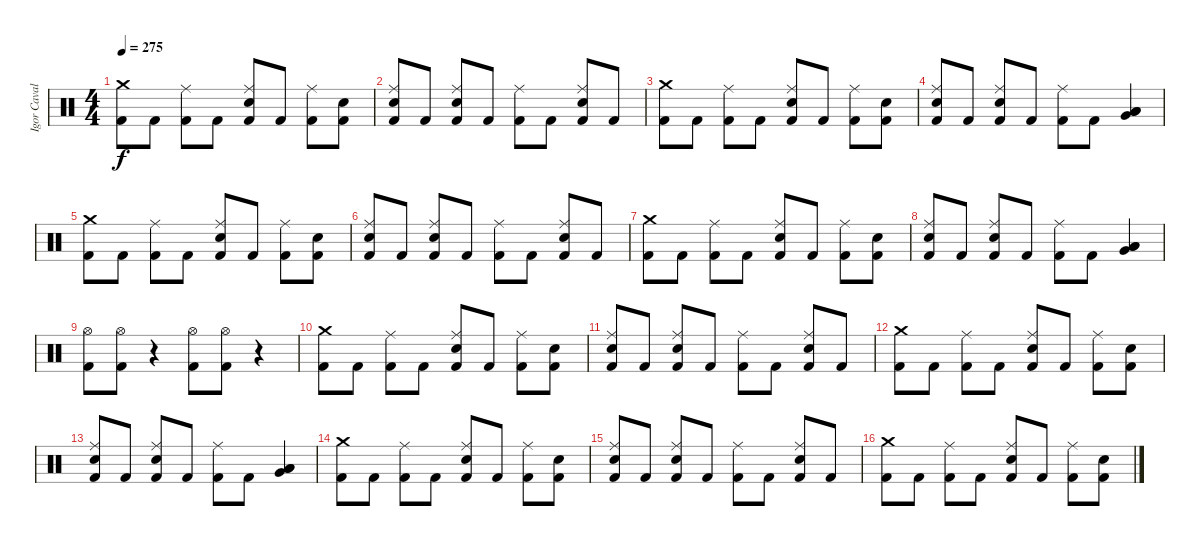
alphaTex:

\track ("Igor Cavalera" "Igor Caval") {instrument percussion}
\staff {score}
\articulation defaults
\ts (4 4)
\tempo 275
\clef neutral
\ks c
("Crash medium (hit)" "Kick (hit) 2").8{dy f} "Kick (hit) 2".8 ("Ride (middle)" "Kick (hit) 2").8 "Kick (hit) 2".8 ("Ride (middle)" "Electric Snare (hit)" "Kick (hit) 2").8 "Kick (hit) 2".8 ("Ride (middle)" "Kick (hit) 2").8 ("Electric Snare (hit)" "Kick (hit) 2").8 |
("Ride (middle)" "Electric Snare (hit)" "Kick (hit) 2").8 "Kick (hit) 2".8 ("Ride (middle)" "Electric Snare (hit)" "Kick (hit) 2").8 "Kick (hit) 2".8 ("Ride (middle)" "Kick (hit) 2").8 "Kick (hit) 2".8 ("Ride (middle)" "Electric Snare (hit)" "Kick (hit) 2").8 "Kick (hit) 2".8 |
("Crash medium (hit)" "Kick (hit) 2").8 "Kick (hit) 2".8 ("Ride (middle)" "Kick (hit) 2").8 "Kick (hit) 2".8 ("Ride (middle)" "Electric Snare (hit)" "Kick (hit) 2").8 "Kick (hit) 2".8 ("Ride (middle)" "Kick (hit) 2").8 ("Electric Snare (hit)" "Kick (hit) 2").8 |
("Ride (middle)" "Electric Snare (hit)" "Kick (hit) 2").8 "Kick (hit) 2".8 ("Ride (middle)" "Electric Snare (hit)" "Kick (hit) 2").8 "Kick (hit) 2".8 ("Ride (middle)" "Kick (hit) 2").8 "Kick (hit) 2".8 ("Low Tom (hit)" "Very Low Tom (hit)" "Low Floor Tom (hit)").4 |
("Crash medium (hit)" "Kick (hit) 2").8 "Kick (hit) 2".8 ("Ride (middle)" "Kick (hit) 2").8 "Kick (hit) 2".8 ("Ride (middle)" "Electric Snare (hit)" "Kick (hit) 2").8 "Kick (hit) 2".8 ("Ride (middle)" "Kick (hit) 2").8 ("Electric Snare (hit)" "Kick (hit) 2").8 |
("Ride (middle)" "Electric Snare (hit)" "Kick (hit) 2").8 "Kick (hit) 2".8 ("Ride (middle)" "Electric Snare (hit)" "Kick (hit) 2").8 "Kick (hit) 2".8 ("Ride (middle)" "Kick (hit) 2").8 "Kick (hit) 2".8 ("Ride (middle)" "Electric Snare (hit)" "Kick (hit) 2").8 "Kick (hit) 2".8 |
("Crash medium (hit)" "Kick (hit) 2").8 "Kick (hit) 2".8 ("Ride (middle)" "Kick (hit) 2").8 "Kick (hit) 2".8 ("Ride (middle)" "Electric Snare (hit)" "Kick (hit) 2").8 "Kick (hit) 2".8 ("Ride (middle)" "Kick (hit) 2").8 ("Electric Snare (hit)" "Kick (hit) 2").8 |
("Ride (middle)" "Electric Snare (hit)" "Kick (hit) 2").8 "Kick (hit) 2".8 ("Ride (middle)" "Electric Snare (hit)" "Kick (hit) 2").8 "Kick (hit) 2".8 ("Ride (middle)" "Kick (hit) 2").8 "Kick (hit) 2".8 ("Low Tom (hit)" "Very Low Tom (hit)" "Low Floor Tom (hit)").4 |
("Kick (hit) 2" "Hi-Hat (open)").8 ("Kick (hit) 2" "Hi-Hat (open)").8 r.4 ("Hi-Hat (open)" "Kick (hit) 2").8 ("Hi-Hat (open)" "Kick (hit) 2").8 r.4 |
("Crash medium (hit)" "Kick (hit) 2").8 "Kick (hit) 2".8 ("Ride (middle)" "Kick (hit) 2").8 "Kick (hit) 2".8 ("Ride (middle)" "Electric Snare (hit)" "Kick (hit) 2").8 "Kick (hit) 2".8 ("Ride (middle)" "Kick (hit) 2").8 ("Electric Snare (hit)" "Kick (hit) 2").8 |
("Ride (middle)" "Electric Snare (hit)" "Kick (hit) 2").8 "Kick (hit) 2".8 ("Ride (middle)" "Electric Snare (hit)" "Kick (hit) 2").8 "Kick (hit) 2".8 ("Ride (middle)" "Kick (hit) 2").8 "Kick (hit) 2".8 ("Ride (middle)" "Electric Snare (hit)" "Kick (hit) 2").8 "Kick (hit) 2".8 |
("Crash medium (hit)" "Kick (hit) 2").8 "Kick (hit) 2".8 ("Ride (middle)" "Kick (hit) 2").8 "Kick (hit) 2".8 ("Ride (middle)" "Electric Snare (hit)" "Kick (hit) 2").8 "Kick (hit) 2".8 ("Ride (middle)" "Kick (hit) 2").8 ("Electric Snare (hit)" "Kick (hit) 2").8 |
("Ride (middle)" "Electric Snare (hit)" "Kick (hit) 2").8 "Kick (hit) 2".8 ("Ride (middle)" "Electric Snare (hit)" "Kick (hit) 2").8 "Kick (hit) 2".8 ("Ride (middle)" "Kick (hit) 2").8 "Kick (hit) 2".8 ("Low Tom (hit)" "Very Low Tom (hit)" "Low Floor Tom (hit)").4 |
("Crash medium (hit)" "Kick (hit) 2").8 "Kick (hit) 2".8 ("Ride (middle)" "Kick (hit) 2").8 "Kick (hit) 2".8 ("Ride (middle)" "Electric Snare (hit)" "Kick (hit) 2").8 "Kick (hit) 2".8 ("Ride (middle)" "Kick (hit) 2").8 ("Electric Snare (hit)" "Kick (hit) 2").8 |
("Ride (middle)" "Electric Snare (hit)" "Kick (hit) 2").8 "Kick (hit) 2".8 ("Ride (middle)" "Electric Snare (hit)" "Kick (hit) 2").8 "Kick (hit) 2".8 ("Ride (middle)" "Kick (hit) 2").8 "Kick (hit) 2".8 ("Ride (middle)" "Electric Snare (hit)" "Kick (hit) 2").8 "Kick (hit) 2".8 |
("Crash medium (hit)" "Kick (hit) 2").8 "Kick (hit) 2".8 ("Ride (middle)" "Kick (hit) 2").8 "Kick (hit) 2".8 ("Ride (middle)" "Electric Snare (hit)" "Kick (hit) 2").8 "Kick (hit) 2".8 ("Ride (middle)" "Kick (hit) 2").8 ("Electric Snare (hit)" "Kick (hit) 2").8
